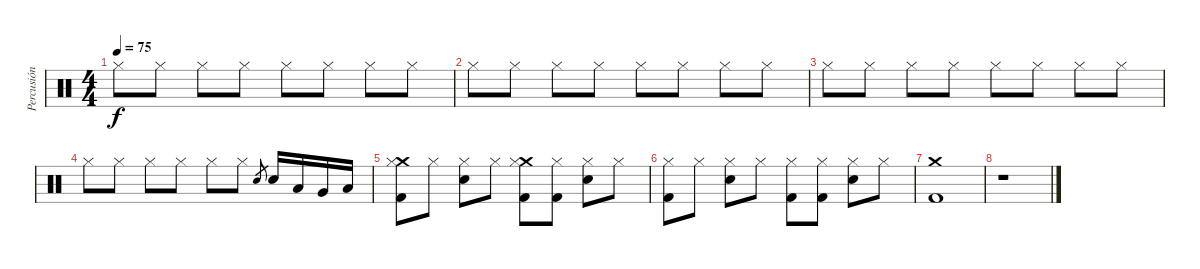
\track ("Percusión" "Percusión") {instrument percussion}
\staff {score}
\articulation defaults
\ts (4 4)
\tempo 75
\clef neutral
\ks c "Hi-Hat (closed)".8{dy f} "Hi-Hat (closed)".8 "Hi-Hat (closed)".8 "Hi-Hat (closed)".8 "Hi-Hat (closed)".8 "Hi-Hat (closed)".8 "Hi-Hat (closed)".8 "Hi-Hat (closed)".8
|
"Hi-Hat (closed)".8 "Hi-Hat (closed)".8 "Hi-Hat (closed)".8 "Hi-Hat (closed)".8 "Hi-Hat (closed)".8 "Hi-Hat (closed)".8 "Hi-Hat (closed)".8 "Hi-Hat (closed)".8 |
"Hi-Hat (closed)".8 "Hi-Hat (closed)".8 "Hi-Hat (closed)".8 "Hi-Hat (closed)".8 "Hi-Hat (closed)".8 "Hi-Hat (closed)".8 "Hi-Hat (closed)".8 "Hi-Hat (closed)".8 |
"Hi-Hat (closed)".8 "Hi-Hat (closed)".8 "Hi-Hat (closed)".8 "Hi-Hat (closed)".8 "Hi-Hat (closed)".8 "Hi-Hat (closed)".8 "Electric Snare (hit)".8{gr} "Electric Snare (hit)".16{volume 13} "Low Tom (hit)".16 "Very Low Tom (hit)".16 "Low Floor Tom (hit)".16 |
("Crash medium (hit)" "Hi-Hat (closed)" "Kick (hit) 2").8 "Hi-Hat (closed)".8 ("Hi-Hat (closed)" "Electric Snare (hit)").8 "Hi-Hat (closed)".8 ("Crash medium (hit)" "Hi-Hat (closed)" "Kick (hit) 2").8 ("Hi-Hat (closed)" "Kick (hit) 2").8 ("Hi-Hat (closed)" "Electric Snare (hit)").8 "Hi-Hat (closed)".8 |
("Hi-Hat (closed)" "Kick (hit) 2").8 "Hi-Hat (closed)".8 ("Hi-Hat (closed)" "Electric Snare (hit)").8 "Hi-Hat (closed)".8 ("Hi-Hat (closed)" "Kick (hit) 2").8 ("Hi-Hat (closed)" "Kick (hit) 2").8 ("Hi-Hat (closed)" "Electric Snare (hit)").8 "Hi-Hat (closed)".8 |
("Crash medium (hit)" "Kick (hit) 2").1 |
r.1
